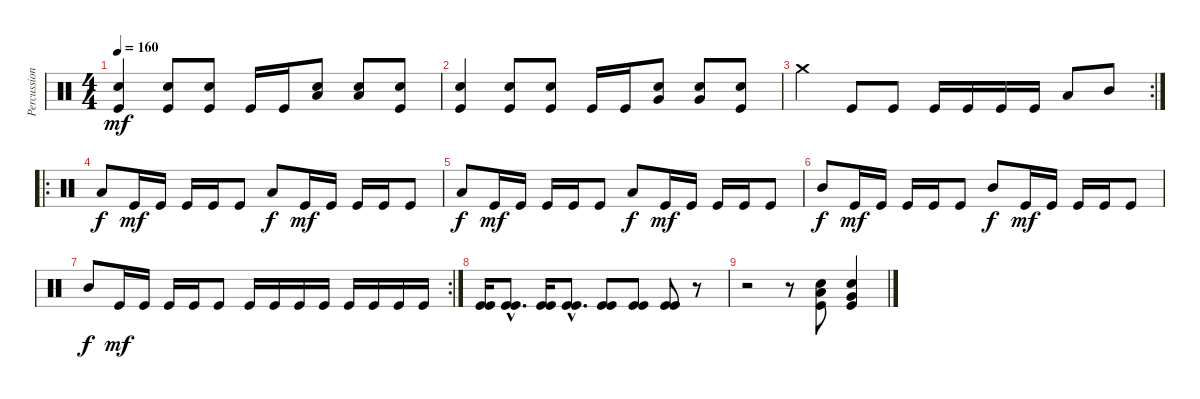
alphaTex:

\track ("Percussion" "Percussion") {instrument percussion}
\staff {score}
\articulation defaults
\ts (4 4)
\tempo 160
\clef neutral
\ks c
("Electric Snare (hit)" "Kick (hit)").4{dy mf} ("Electric Snare (hit)" "Kick (hit)").8 ("Electric Snare (hit)" "Kick (hit)").8 "Kick (hit)".16 "Kick (hit)".16 ("Electric Snare (hit)" "Low Tom (hit)").8 ("Electric Snare (hit)" "Low Tom (hit)").8 ("Electric Snare (hit)" "Kick (hit)").8 |
("Snare (hit) 2" "Kick (hit)").4 ("Snare (hit) 2" "Kick (hit)").8 ("Snare (hit) 2" "Kick (hit)").8 "Kick (hit)".16 "Kick (hit)".16 ("Snare (hit) 2" "Very Low Tom (hit)").8 ("Snare (hit) 2" "Very Low Tom (hit)").8 ("Snare (hit) 2" "Kick (hit)").8 |
\rc 2 "Crash medium (hit)".4 "Kick (hit)".8 "Kick (hit)".8 "Kick (hit)".16 "Kick (hit)".16 "Kick (hit)".16 "Kick (hit)".16 "Low Tom (hit)".8 "Mid Tom (hit)".8
|
\ro "Low Tom (hit)".8{dy f} "Kick (hit)".16{dy mf} "Kick (hit)".16 "Kick (hit)".16 "Kick (hit)".16 "Kick (hit)".8 "Low Tom (hit)".8{dy f} "Kick (hit)".16{dy mf} "Kick (hit)".16 "Kick (hit)".16 "Kick (hit)".16 "Kick (hit)".8
|
"Low Tom (hit)".8{dy f} "Kick (hit)".16{dy mf} "Kick (hit)".16 "Kick (hit)".16 "Kick (hit)".16 "Kick (hit)".8 "Low Tom (hit)".8{dy f} "Kick (hit)".16{dy mf} "Kick (hit)".16 "Kick (hit)".16 "Kick (hit)".16 "Kick (hit)".8 |
"Mid Tom (hit)".8{dy f} "Kick (hit)".16{dy mf} "Kick (hit)".16 "Kick (hit)".16 "Kick (hit)".16 "Kick (hit)".8 "Mid Tom (hit)".8{dy f} "Kick (hit)".16{dy mf} "Kick (hit)".16 "Kick (hit)".16 "Kick (hit)".16 "Kick (hit)".8 |
\rc 2 "Mid Tom (hit)".8{dy f} "Kick (hit)".16{dy mf} "Kick (hit)".16 "Kick (hit)".16 "Kick (hit)".16 "Kick (hit)".8 "Kick (hit)".16 "Kick (hit)".16 "Kick (hit)".16 "Kick (hit)".16 "Kick (hit)".16 "Kick (hit)".16 "Kick (hit)".16 "Kick (hit)".16
|
("Kick (hit)" "Kick (hit)").16 ("Kick (hit)"{hac} "Kick (hit)"{hac}).8{d} ("Kick (hit)" "Kick (hit)").16 ("Kick (hit)"{hac} "Kick (hit)"{hac}).8{d} ("Kick (hit)" "Kick (hit)").8 ("Kick (hit)" "Kick (hit)").8 ("Kick (hit)" "Kick (hit)").8 r.8 |
r.2 r.8 ("Electric Snare (hit)" "Kick (hit)" "Low Tom (hit)").8 ("Snare (hit) 2" "Kick (hit)" "Very Low Tom (hit)").4
